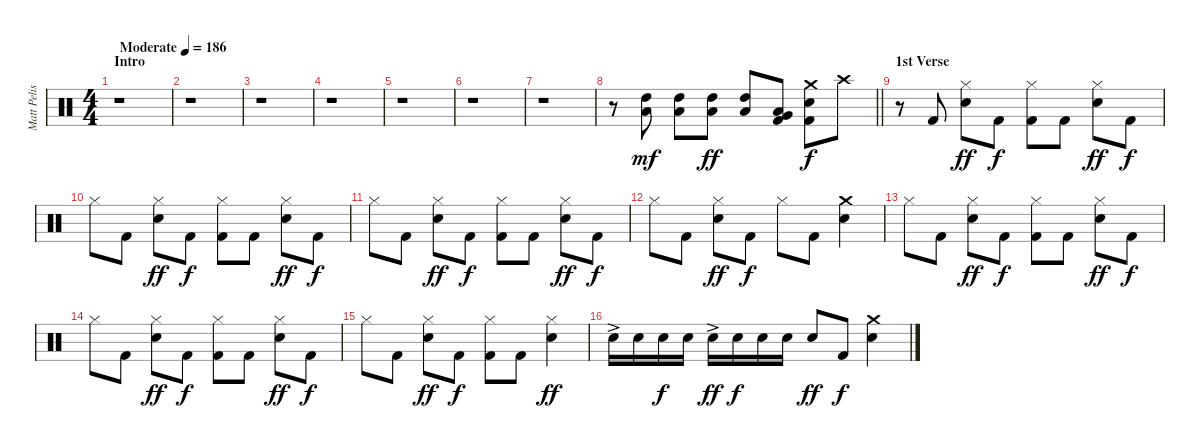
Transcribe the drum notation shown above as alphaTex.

\track ("Matt Pelissier" "Matt Pelis") {instrument percussion}
\staff {score}
\articulation defaults
\ts (4 4)
\section ("" "Intro")
\tempo (186 "Moderate")
\clef neutral
\ks c
r.1{dy mf} |
r.1 |
r.1 |
r.1 |
r.1 |
r.1 |
r.1 |
\barLineRight lightlight
r.8 ("High Tom (hit)" "Low Tom (hit)").8 ("High Tom (hit)" "Low Tom (hit)").8 ("High Tom (hit)" "Low Tom (hit)").8{dy ff} ("High Tom (hit)" "Low Tom (hit)").8 ("Low Tom (hit)" "Very Low Tom (hit)" "Kick (hit) 2").8 ("Crash medium (hit)" "Snare (hit) 2" "Kick (hit) 2").8{dy f} "Crash high (hit)".8 |
\section ("" "1st Verse")
r.8 "Kick (hit) 2".8 ("Hi-Hat (closed)" "Snare (hit) 2").8{dy ff} "Kick (hit) 2".8{dy f} ("Hi-Hat (closed)" "Kick (hit) 2").8 "Kick (hit) 2".8 ("Hi-Hat (closed)" "Snare (hit) 2").8{dy ff} "Kick (hit) 2".8{dy f} |
"Hi-Hat (closed)".8 "Kick (hit) 2".8 ("Hi-Hat (closed)" "Snare (hit) 2").8{dy ff} "Kick (hit) 2".8{dy f} ("Hi-Hat (closed)" "Kick (hit) 2").8 "Kick (hit) 2".8 ("Hi-Hat (closed)" "Snare (hit) 2").8{dy ff} "Kick (hit) 2".8{dy f} |
"Hi-Hat (closed)".8 "Kick (hit) 2".8 ("Hi-Hat (closed)" "Snare (hit) 2").8{dy ff} "Kick (hit) 2".8{dy f} ("Hi-Hat (closed)" "Kick (hit) 2").8 "Kick (hit) 2".8 ("Hi-Hat (closed)" "Snare (hit) 2").8{dy ff} "Kick (hit) 2".8{dy f} |
"Hi-Hat (closed)".8 "Kick (hit) 2".8 ("Hi-Hat (closed)" "Snare (hit) 2").8{dy ff} "Kick (hit) 2".8{dy f} "Hi-Hat (closed)".8 "Kick (hit) 2".8 ("Crash medium (hit)" "Snare (hit) 2").4 |
"Hi-Hat (closed)".8 "Kick (hit) 2".8 ("Hi-Hat (closed)" "Snare (hit) 2").8{dy ff} "Kick (hit) 2".8{dy f} ("Hi-Hat (closed)" "Kick (hit) 2").8 "Kick (hit) 2".8 ("Hi-Hat (closed)" "Snare (hit) 2").8{dy ff} "Kick (hit) 2".8{dy f} |
"Hi-Hat (closed)".8 "Kick (hit) 2".8 ("Hi-Hat (closed)" "Snare (hit) 2").8{dy ff} "Kick (hit) 2".8{dy f} ("Hi-Hat (closed)" "Kick (hit) 2").8 "Kick (hit) 2".8 ("Hi-Hat (closed)" "Snare (hit) 2").8{dy ff} "Kick (hit) 2".8{dy f} |
"Hi-Hat (closed)".8 "Kick (hit) 2".8 ("Hi-Hat (closed)" "Snare (hit) 2").8{dy ff} "Kick (hit) 2".8{dy f} ("Hi-Hat (closed)" "Kick (hit) 2").8 "Kick (hit) 2".8 ("Hi-Hat (closed)" "Snare (hit) 2").4{dy ff} |
"Snare (hit) 2"{ac}.16 "Snare (hit) 2".16 "Snare (hit) 2".16{dy f} "Snare (hit) 2".16 "Snare (hit) 2"{ac}.16{dy ff} "Snare (hit) 2".16{dy f} "Snare (hit) 2".16 "Snare (hit) 2".16 "Snare (hit) 2".8{dy ff} "Kick (hit) 2".8{dy f} ("Crash medium (hit)" "Snare (hit) 2").4
